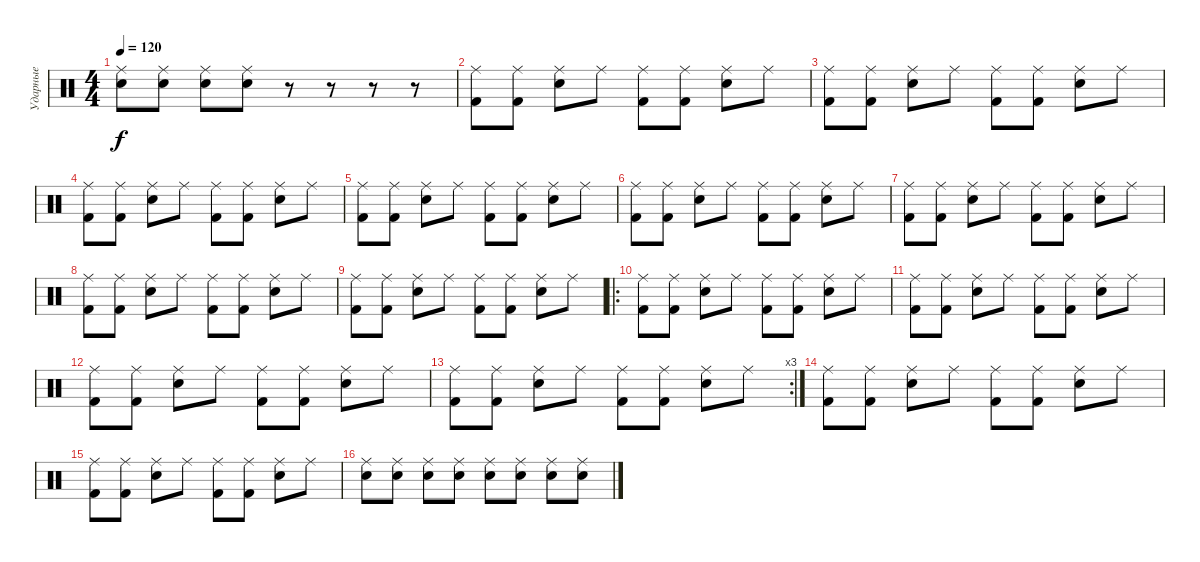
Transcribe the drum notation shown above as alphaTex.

\track ("Ударные" "Ударные") {instrument percussion}
\staff {score}
\articulation defaults
\ts (4 4)
\tempo 120
\clef neutral
\ks c
("Ride (middle)" "Snare (hit) 2").8{dy f} ("Ride (middle)" "Snare (hit) 2").8 ("Ride (middle)" "Snare (hit) 2").8 ("Ride (middle)" "Snare (hit) 2").8 r.8 r.8 r.8 r.8 |
("Ride (middle)" "Kick (hit) 2").8 ("Ride (middle)" "Kick (hit) 2").8 ("Ride (middle)" "Snare (hit) 2").8 "Ride (middle)".8 ("Ride (middle)" "Kick (hit) 2").8 ("Ride (middle)" "Kick (hit) 2").8 ("Ride (middle)" "Snare (hit) 2").8 "Ride (middle)".8 |
("Ride (middle)" "Kick (hit) 2").8 ("Ride (middle)" "Kick (hit) 2").8 ("Ride (middle)" "Snare (hit) 2").8 "Ride (middle)".8 ("Ride (middle)" "Kick (hit) 2").8 ("Ride (middle)" "Kick (hit) 2").8 ("Ride (middle)" "Snare (hit) 2").8 "Ride (middle)".8 |
("Ride (middle)" "Kick (hit) 2").8 ("Ride (middle)" "Kick (hit) 2").8 ("Ride (middle)" "Snare (hit) 2").8 "Ride (middle)".8 ("Ride (middle)" "Kick (hit) 2").8 ("Ride (middle)" "Kick (hit) 2").8 ("Ride (middle)" "Snare (hit) 2").8 "Ride (middle)".8 |
("Ride (middle)" "Kick (hit) 2").8 ("Ride (middle)" "Kick (hit) 2").8 ("Ride (middle)" "Snare (hit) 2").8 "Ride (middle)".8 ("Ride (middle)" "Kick (hit) 2").8 ("Ride (middle)" "Kick (hit) 2").8 ("Ride (middle)" "Snare (hit) 2").8 "Ride (middle)".8 |
("Ride (middle)" "Kick (hit) 2").8 ("Ride (middle)" "Kick (hit) 2").8 ("Ride (middle)" "Snare (hit) 2").8 "Ride (middle)".8 ("Ride (middle)" "Kick (hit) 2").8 ("Ride (middle)" "Kick (hit) 2").8 ("Ride (middle)" "Snare (hit) 2").8 "Ride (middle)".8 |
("Ride (middle)" "Kick (hit) 2").8 ("Ride (middle)" "Kick (hit) 2").8 ("Ride (middle)" "Snare (hit) 2").8 "Ride (middle)".8 ("Ride (middle)" "Kick (hit) 2").8 ("Ride (middle)" "Kick (hit) 2").8 ("Ride (middle)" "Snare (hit) 2").8 "Ride (middle)".8 |
("Ride (middle)" "Kick (hit) 2").8 ("Ride (middle)" "Kick (hit) 2").8 ("Ride (middle)" "Snare (hit) 2").8 "Ride (middle)".8 ("Ride (middle)" "Kick (hit) 2").8 ("Ride (middle)" "Kick (hit) 2").8 ("Ride (middle)" "Snare (hit) 2").8 "Ride (middle)".8 |
("Ride (middle)" "Kick (hit) 2").8 ("Ride (middle)" "Kick (hit) 2").8 ("Ride (middle)" "Snare (hit) 2").8 "Ride (middle)".8 ("Ride (middle)" "Kick (hit) 2").8 ("Ride (middle)" "Kick (hit) 2").8 ("Ride (middle)" "Snare (hit) 2").8 "Ride (middle)".8 |
\ro
("Ride (middle)" "Kick (hit) 2").8 ("Ride (middle)" "Kick (hit) 2").8 ("Ride (middle)" "Snare (hit) 2").8 "Ride (middle)".8 ("Ride (middle)" "Kick (hit) 2").8 ("Ride (middle)" "Kick (hit) 2").8 ("Ride (middle)" "Snare (hit) 2").8 "Ride (middle)".8 |
("Ride (middle)" "Kick (hit) 2").8 ("Ride (middle)" "Kick (hit) 2").8 ("Ride (middle)" "Snare (hit) 2").8 "Ride (middle)".8 ("Ride (middle)" "Kick (hit) 2").8 ("Ride (middle)" "Kick (hit) 2").8 ("Ride (middle)" "Snare (hit) 2").8 "Ride (middle)".8 |
("Ride (middle)" "Kick (hit) 2").8 ("Ride (middle)" "Kick (hit) 2").8 ("Ride (middle)" "Snare (hit) 2").8 "Ride (middle)".8 ("Ride (middle)" "Kick (hit) 2").8 ("Ride (middle)" "Kick (hit) 2").8 ("Ride (middle)" "Snare (hit) 2").8 "Ride (middle)".8 |
\rc 3
("Ride (middle)" "Kick (hit) 2").8 ("Ride (middle)" "Kick (hit) 2").8 ("Ride (middle)" "Snare (hit) 2").8 "Ride (middle)".8 ("Ride (middle)" "Kick (hit) 2").8 ("Ride (middle)" "Kick (hit) 2").8 ("Ride (middle)" "Snare (hit) 2").8 "Ride (middle)".8 |
("Ride (middle)" "Kick (hit) 2").8 ("Ride (middle)" "Kick (hit) 2").8 ("Ride (middle)" "Snare (hit) 2").8 "Ride (middle)".8 ("Ride (middle)" "Kick (hit) 2").8 ("Ride (middle)" "Kick (hit) 2").8 ("Ride (middle)" "Snare (hit) 2").8 "Ride (middle)".8 |
("Ride (middle)" "Kick (hit) 2").8 ("Ride (middle)" "Kick (hit) 2").8 ("Ride (middle)" "Snare (hit) 2").8 "Ride (middle)".8 ("Ride (middle)" "Kick (hit) 2").8 ("Ride (middle)" "Kick (hit) 2").8 ("Ride (middle)" "Snare (hit) 2").8 "Ride (middle)".8 |
("Ride (middle)" "Snare (hit) 2").8 ("Ride (middle)" "Snare (hit) 2").8 ("Ride (middle)" "Snare (hit) 2").8 ("Ride (middle)" "Snare (hit) 2").8 ("Ride (middle)" "Snare (hit) 2").8 ("Ride (middle)" "Snare (hit) 2").8 ("Ride (middle)" "Snare (hit) 2").8 ("Ride (middle)" "Snare (hit) 2").8
